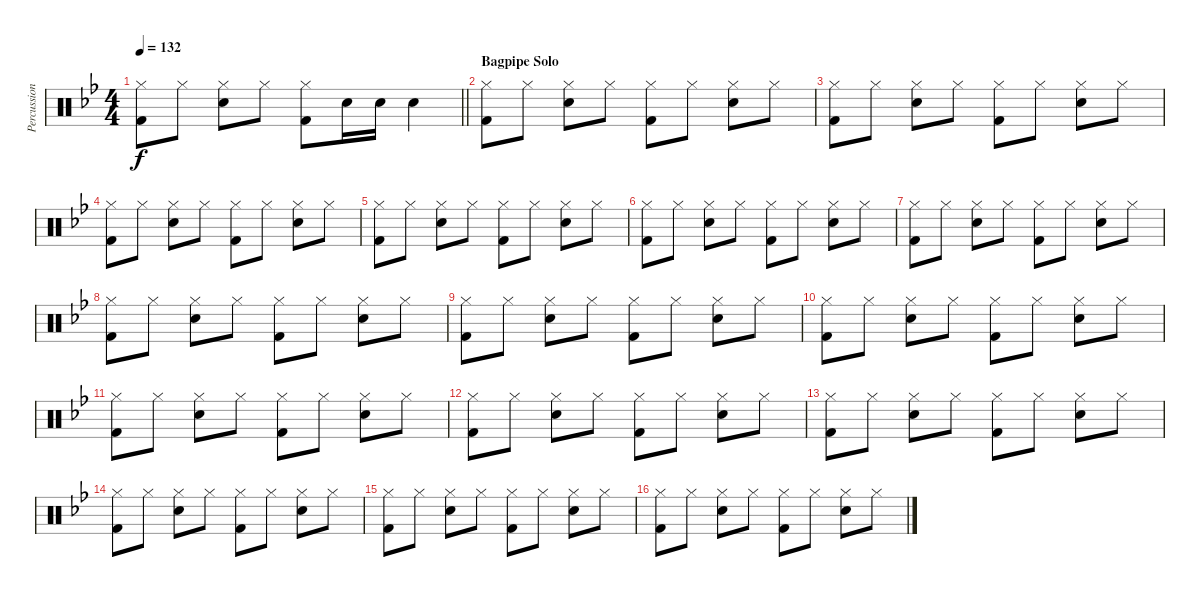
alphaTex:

\track ("Percussion" "Percussion") {instrument percussion}
\staff {score}
\articulation defaults
\ts (4 4)
\tempo 132
\clef neutral
\barLineRight lightlight
\ks bb
("Hi-Hat (closed)" "Kick (hit) 2").8{dy f} "Hi-Hat (closed)".8 ("Hi-Hat (closed)" "Snare (hit) 2").8 "Hi-Hat (closed)".8 ("Hi-Hat (closed)" "Kick (hit) 2").8 "Snare (hit) 2".16 "Snare (hit) 2".16 "Snare (hit) 2".4 |
\section ("" "Bagpipe Solo")
("Hi-Hat (closed)" "Kick (hit) 2").8 "Hi-Hat (closed)".8 ("Hi-Hat (closed)" "Snare (hit) 2").8 "Hi-Hat (closed)".8 ("Hi-Hat (closed)" "Kick (hit) 2").8 "Hi-Hat (closed)".8 ("Hi-Hat (closed)" "Snare (hit) 2").8 "Hi-Hat (closed)".8 |
("Hi-Hat (closed)" "Kick (hit) 2").8 "Hi-Hat (closed)".8 ("Hi-Hat (closed)" "Snare (hit) 2").8 "Hi-Hat (closed)".8 ("Hi-Hat (closed)" "Kick (hit) 2").8 "Hi-Hat (closed)".8 ("Hi-Hat (closed)" "Snare (hit) 2").8 "Hi-Hat (closed)".8 |
("Hi-Hat (closed)" "Kick (hit) 2").8 "Hi-Hat (closed)".8 ("Hi-Hat (closed)" "Snare (hit) 2").8 "Hi-Hat (closed)".8 ("Hi-Hat (closed)" "Kick (hit) 2").8 "Hi-Hat (closed)".8 ("Hi-Hat (closed)" "Snare (hit) 2").8 "Hi-Hat (closed)".8 |
("Hi-Hat (closed)" "Kick (hit) 2").8 "Hi-Hat (closed)".8 ("Hi-Hat (closed)" "Snare (hit) 2").8 "Hi-Hat (closed)".8 ("Hi-Hat (closed)" "Kick (hit) 2").8 "Hi-Hat (closed)".8 ("Hi-Hat (closed)" "Snare (hit) 2").8 "Hi-Hat (closed)".8 |
("Hi-Hat (closed)" "Kick (hit) 2").8 "Hi-Hat (closed)".8 ("Hi-Hat (closed)" "Snare (hit) 2").8 "Hi-Hat (closed)".8 ("Hi-Hat (closed)" "Kick (hit) 2").8 "Hi-Hat (closed)".8 ("Hi-Hat (closed)" "Snare (hit) 2").8 "Hi-Hat (closed)".8 |
("Hi-Hat (closed)" "Kick (hit) 2").8 "Hi-Hat (closed)".8 ("Hi-Hat (closed)" "Snare (hit) 2").8 "Hi-Hat (closed)".8 ("Hi-Hat (closed)" "Kick (hit) 2").8 "Hi-Hat (closed)".8 ("Hi-Hat (closed)" "Snare (hit) 2").8 "Hi-Hat (closed)".8 |
("Hi-Hat (closed)" "Kick (hit) 2").8 "Hi-Hat (closed)".8 ("Hi-Hat (closed)" "Snare (hit) 2").8 "Hi-Hat (closed)".8 ("Hi-Hat (closed)" "Kick (hit) 2").8 "Hi-Hat (closed)".8 ("Hi-Hat (closed)" "Snare (hit) 2").8 "Hi-Hat (closed)".8 |
("Hi-Hat (closed)" "Kick (hit) 2").8 "Hi-Hat (closed)".8 ("Hi-Hat (closed)" "Snare (hit) 2").8 "Hi-Hat (closed)".8 ("Hi-Hat (closed)" "Kick (hit) 2").8 "Hi-Hat (closed)".8 ("Hi-Hat (closed)" "Snare (hit) 2").8 "Hi-Hat (closed)".8 |
("Hi-Hat (closed)" "Kick (hit) 2").8 "Hi-Hat (closed)".8 ("Hi-Hat (closed)" "Snare (hit) 2").8 "Hi-Hat (closed)".8 ("Hi-Hat (closed)" "Kick (hit) 2").8 "Hi-Hat (closed)".8 ("Hi-Hat (closed)" "Snare (hit) 2").8 "Hi-Hat (closed)".8 |
("Hi-Hat (closed)" "Kick (hit) 2").8 "Hi-Hat (closed)".8 ("Hi-Hat (closed)" "Snare (hit) 2").8 "Hi-Hat (closed)".8 ("Hi-Hat (closed)" "Kick (hit) 2").8 "Hi-Hat (closed)".8 ("Hi-Hat (closed)" "Snare (hit) 2").8 "Hi-Hat (closed)".8 |
("Hi-Hat (closed)" "Kick (hit) 2").8 "Hi-Hat (closed)".8 ("Hi-Hat (closed)" "Snare (hit) 2").8 "Hi-Hat (closed)".8 ("Hi-Hat (closed)" "Kick (hit) 2").8 "Hi-Hat (closed)".8 ("Hi-Hat (closed)" "Snare (hit) 2").8 "Hi-Hat (closed)".8 |
("Hi-Hat (closed)" "Kick (hit) 2").8 "Hi-Hat (closed)".8 ("Hi-Hat (closed)" "Snare (hit) 2").8 "Hi-Hat (closed)".8 ("Hi-Hat (closed)" "Kick (hit) 2").8 "Hi-Hat (closed)".8 ("Hi-Hat (closed)" "Snare (hit) 2").8 "Hi-Hat (closed)".8 |
("Hi-Hat (closed)" "Kick (hit) 2").8 "Hi-Hat (closed)".8 ("Hi-Hat (closed)" "Snare (hit) 2").8 "Hi-Hat (closed)".8 ("Hi-Hat (closed)" "Kick (hit) 2").8 "Hi-Hat (closed)".8 ("Hi-Hat (closed)" "Snare (hit) 2").8 "Hi-Hat (closed)".8 |
("Hi-Hat (closed)" "Kick (hit) 2").8 "Hi-Hat (closed)".8 ("Hi-Hat (closed)" "Snare (hit) 2").8 "Hi-Hat (closed)".8 ("Hi-Hat (closed)" "Kick (hit) 2").8 "Hi-Hat (closed)".8 ("Hi-Hat (closed)" "Snare (hit) 2").8 "Hi-Hat (closed)".8 |
("Hi-Hat (closed)" "Kick (hit) 2").8 "Hi-Hat (closed)".8 ("Hi-Hat (closed)" "Snare (hit) 2").8 "Hi-Hat (closed)".8 ("Hi-Hat (closed)" "Kick (hit) 2").8 "Hi-Hat (closed)".8 ("Hi-Hat (closed)" "Snare (hit) 2").8 "Hi-Hat (closed)".8
